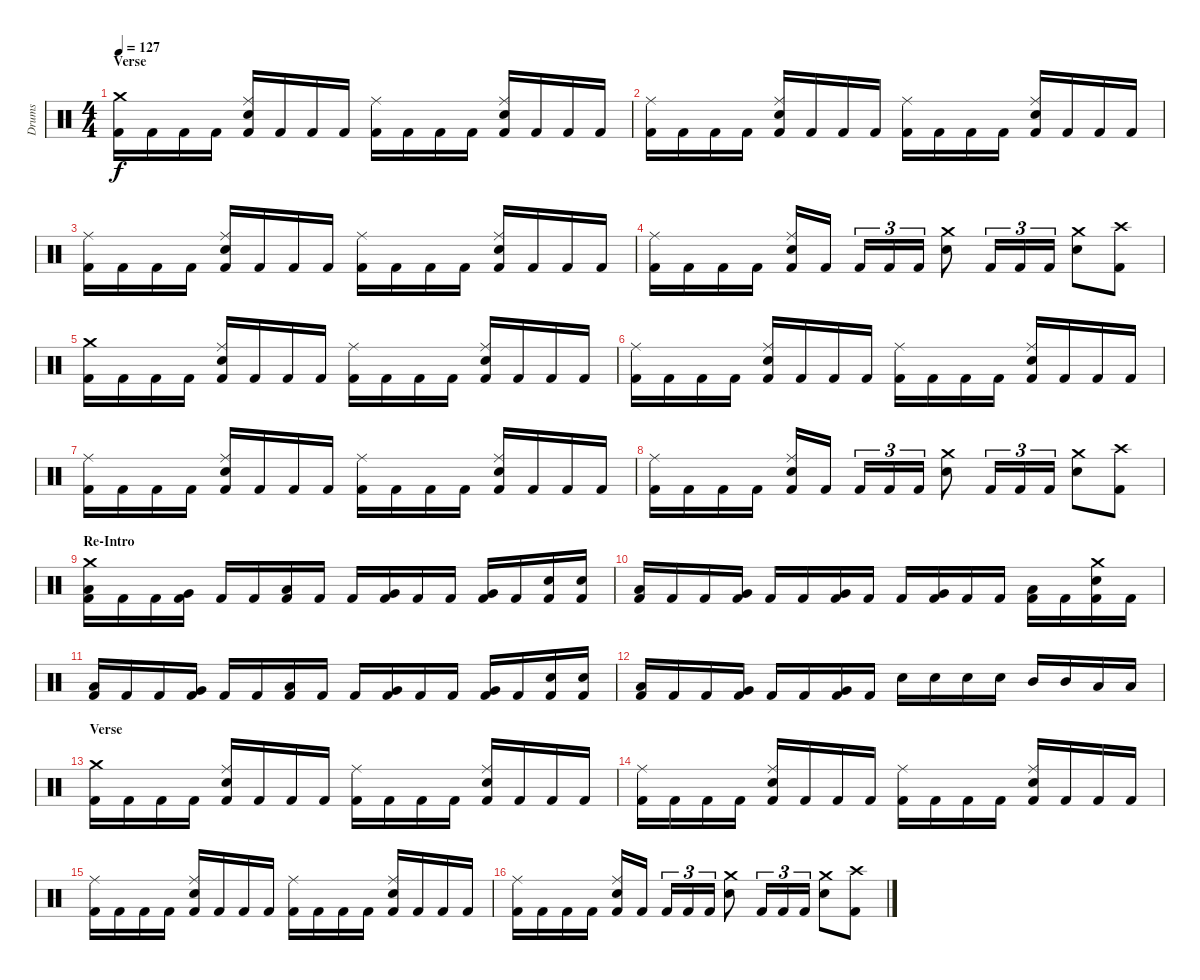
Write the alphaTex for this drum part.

\track ("Drums" "Drums") {instrument percussion}
\staff {score}
\articulation defaults
\ts (4 4)
\section ("" "Verse")
\tempo 127
\clef neutral
\ks c
("Crash medium (hit)" "Kick (hit) 2").16{dy f} "Kick (hit) 2".16 "Kick (hit) 2".16 "Kick (hit) 2".16 ("Ride (middle)" "Electric Snare (hit)" "Kick (hit) 2").16 "Kick (hit) 2".16 "Kick (hit) 2".16 "Kick (hit) 2".16 ("Ride (middle)" "Kick (hit) 2").16 "Kick (hit) 2".16 "Kick (hit) 2".16 "Kick (hit) 2".16 ("Ride (middle)" "Electric Snare (hit)" "Kick (hit) 2").16 "Kick (hit) 2".16 "Kick (hit) 2".16 "Kick (hit) 2".16 |
("Ride (middle)" "Kick (hit) 2").16 "Kick (hit) 2".16 "Kick (hit) 2".16 "Kick (hit) 2".16 ("Ride (middle)" "Electric Snare (hit)" "Kick (hit) 2").16 "Kick (hit) 2".16 "Kick (hit) 2".16 "Kick (hit) 2".16 ("Ride (middle)" "Kick (hit) 2").16 "Kick (hit) 2".16 "Kick (hit) 2".16 "Kick (hit) 2".16 ("Ride (middle)" "Electric Snare (hit)" "Kick (hit) 2").16 "Kick (hit) 2".16 "Kick (hit) 2".16 "Kick (hit) 2".16 |
("Ride (middle)" "Kick (hit) 2").16 "Kick (hit) 2".16 "Kick (hit) 2".16 "Kick (hit) 2".16 ("Ride (middle)" "Electric Snare (hit)" "Kick (hit) 2").16 "Kick (hit) 2".16 "Kick (hit) 2".16 "Kick (hit) 2".16 ("Ride (middle)" "Kick (hit) 2").16 "Kick (hit) 2".16 "Kick (hit) 2".16 "Kick (hit) 2".16 ("Ride (middle)" "Electric Snare (hit)" "Kick (hit) 2").16 "Kick (hit) 2".16 "Kick (hit) 2".16 "Kick (hit) 2".16 |
("Ride (middle)" "Kick (hit) 2").16 "Kick (hit) 2".16 "Kick (hit) 2".16 "Kick (hit) 2".16 ("Ride (middle)" "Electric Snare (hit)" "Kick (hit) 2").16 "Kick (hit) 2".16 "Kick (hit) 2".16{tu (3 2)} "Kick (hit) 2".16{tu (3 2)} "Kick (hit) 2".16{tu (3 2)} ("Crash medium (hit)" "Electric Snare (hit)").8 "Kick (hit) 2".16{tu (3 2)} "Kick (hit) 2".16{tu (3 2)} "Kick (hit) 2".16{tu (3 2)} ("Crash medium (hit)" "Electric Snare (hit)").8 ("Crash high (hit)" "Kick (hit) 2").8 |
("Crash medium (hit)" "Kick (hit) 2").16 "Kick (hit) 2".16 "Kick (hit) 2".16 "Kick (hit) 2".16 ("Ride (middle)" "Electric Snare (hit)" "Kick (hit) 2").16 "Kick (hit) 2".16 "Kick (hit) 2".16 "Kick (hit) 2".16 ("Ride (middle)" "Kick (hit) 2").16 "Kick (hit) 2".16 "Kick (hit) 2".16 "Kick (hit) 2".16 ("Ride (middle)" "Electric Snare (hit)" "Kick (hit) 2").16 "Kick (hit) 2".16 "Kick (hit) 2".16 "Kick (hit) 2".16 |
("Ride (middle)" "Kick (hit) 2").16 "Kick (hit) 2".16 "Kick (hit) 2".16 "Kick (hit) 2".16 ("Ride (middle)" "Electric Snare (hit)" "Kick (hit) 2").16 "Kick (hit) 2".16 "Kick (hit) 2".16 "Kick (hit) 2".16 ("Ride (middle)" "Kick (hit) 2").16 "Kick (hit) 2".16 "Kick (hit) 2".16 "Kick (hit) 2".16 ("Ride (middle)" "Electric Snare (hit)" "Kick (hit) 2").16 "Kick (hit) 2".16 "Kick (hit) 2".16 "Kick (hit) 2".16 |
("Ride (middle)" "Kick (hit) 2").16 "Kick (hit) 2".16 "Kick (hit) 2".16 "Kick (hit) 2".16 ("Ride (middle)" "Electric Snare (hit)" "Kick (hit) 2").16 "Kick (hit) 2".16 "Kick (hit) 2".16 "Kick (hit) 2".16 ("Ride (middle)" "Kick (hit) 2").16 "Kick (hit) 2".16 "Kick (hit) 2".16 "Kick (hit) 2".16 ("Ride (middle)" "Electric Snare (hit)" "Kick (hit) 2").16 "Kick (hit) 2".16 "Kick (hit) 2".16 "Kick (hit) 2".16 |
("Ride (middle)" "Kick (hit) 2").16 "Kick (hit) 2".16 "Kick (hit) 2".16 "Kick (hit) 2".16 ("Ride (middle)" "Electric Snare (hit)" "Kick (hit) 2").16 "Kick (hit) 2".16 "Kick (hit) 2".16{tu (3 2)} "Kick (hit) 2".16{tu (3 2)} "Kick (hit) 2".16{tu (3 2)} ("Crash medium (hit)" "Electric Snare (hit)").8 "Kick (hit) 2".16{tu (3 2)} "Kick (hit) 2".16{tu (3 2)} "Kick (hit) 2".16{tu (3 2)} ("Crash medium (hit)" "Electric Snare (hit)").8 ("Crash high (hit)" "Kick (hit) 2").8 |
\section ("" "Re-Intro")
("Crash medium (hit)" "Low Tom (hit)" "Kick (hit) 2").16 "Kick (hit) 2".16 "Kick (hit) 2".16 ("Very Low Tom (hit)" "Kick (hit) 2").16 "Kick (hit) 2".16 "Kick (hit) 2".16 ("Low Tom (hit)" "Kick (hit) 2").16 "Kick (hit) 2".16 "Kick (hit) 2".16 ("Very Low Tom (hit)" "Kick (hit) 2").16 "Kick (hit) 2".16 "Kick (hit) 2".16 ("Very Low Tom (hit)" "Kick (hit) 2").16 "Kick (hit) 2".16 ("Electric Snare (hit)" "Kick (hit) 2").16 ("Electric Snare (hit)" "Kick (hit) 2").16 |
("Low Tom (hit)" "Kick (hit) 2").16 "Kick (hit) 2".16 "Kick (hit) 2".16 ("Very Low Tom (hit)" "Kick (hit) 2").16 "Kick (hit) 2".16 "Kick (hit) 2".16 ("Very Low Tom (hit)" "Kick (hit) 2").16 "Kick (hit) 2".16 "Kick (hit) 2".16 ("Very Low Tom (hit)" "Kick (hit) 2").16 "Kick (hit) 2".16 "Kick (hit) 2".16 ("Low Tom (hit)" "Kick (hit) 2").16 "Kick (hit) 2".16 ("Crash medium (hit)" "Electric Snare (hit)" "Kick (hit) 2").16 "Kick (hit) 2".16 |
("Low Tom (hit)" "Kick (hit) 2").16 "Kick (hit) 2".16 "Kick (hit) 2".16 ("Very Low Tom (hit)" "Kick (hit) 2").16 "Kick (hit) 2".16 "Kick (hit) 2".16 ("Low Tom (hit)" "Kick (hit) 2").16 "Kick (hit) 2".16 "Kick (hit) 2".16 ("Very Low Tom (hit)" "Kick (hit) 2").16 "Kick (hit) 2".16 "Kick (hit) 2".16 ("Very Low Tom (hit)" "Kick (hit) 2").16 "Kick (hit) 2".16 ("Electric Snare (hit)" "Kick (hit) 2").16 ("Electric Snare (hit)" "Kick (hit) 2").16 |
("Low Tom (hit)" "Kick (hit) 2").16 "Kick (hit) 2".16 "Kick (hit) 2".16 ("Very Low Tom (hit)" "Kick (hit) 2").16 "Kick (hit) 2".16 "Kick (hit) 2".16 ("Very Low Tom (hit)" "Kick (hit) 2").16 "Kick (hit) 2".16 "Electric Snare (hit)".16 "Electric Snare (hit)".16 "Electric Snare (hit)".16 "Electric Snare (hit)".16 "Mid Tom (hit)".16 "Mid Tom (hit)".16 "Low Tom (hit)".16 "Low Tom (hit)".16 |
\section ("" "Verse")
("Crash medium (hit)" "Kick (hit) 2").16 "Kick (hit) 2".16 "Kick (hit) 2".16 "Kick (hit) 2".16 ("Ride (middle)" "Electric Snare (hit)" "Kick (hit) 2").16 "Kick (hit) 2".16 "Kick (hit) 2".16 "Kick (hit) 2".16 ("Ride (middle)" "Kick (hit) 2").16 "Kick (hit) 2".16 "Kick (hit) 2".16 "Kick (hit) 2".16 ("Ride (middle)" "Electric Snare (hit)" "Kick (hit) 2").16 "Kick (hit) 2".16 "Kick (hit) 2".16 "Kick (hit) 2".16 |
("Ride (middle)" "Kick (hit) 2").16 "Kick (hit) 2".16 "Kick (hit) 2".16 "Kick (hit) 2".16 ("Ride (middle)" "Electric Snare (hit)" "Kick (hit) 2").16 "Kick (hit) 2".16 "Kick (hit) 2".16 "Kick (hit) 2".16 ("Ride (middle)" "Kick (hit) 2").16 "Kick (hit) 2".16 "Kick (hit) 2".16 "Kick (hit) 2".16 ("Ride (middle)" "Electric Snare (hit)" "Kick (hit) 2").16 "Kick (hit) 2".16 "Kick (hit) 2".16 "Kick (hit) 2".16 |
("Ride (middle)" "Kick (hit) 2").16 "Kick (hit) 2".16 "Kick (hit) 2".16 "Kick (hit) 2".16 ("Ride (middle)" "Electric Snare (hit)" "Kick (hit) 2").16 "Kick (hit) 2".16 "Kick (hit) 2".16 "Kick (hit) 2".16 ("Ride (middle)" "Kick (hit) 2").16 "Kick (hit) 2".16 "Kick (hit) 2".16 "Kick (hit) 2".16 ("Ride (middle)" "Electric Snare (hit)" "Kick (hit) 2").16 "Kick (hit) 2".16 "Kick (hit) 2".16 "Kick (hit) 2".16 |
("Ride (middle)" "Kick (hit) 2").16 "Kick (hit) 2".16 "Kick (hit) 2".16 "Kick (hit) 2".16 ("Ride (middle)" "Electric Snare (hit)" "Kick (hit) 2").16 "Kick (hit) 2".16 "Kick (hit) 2".16{tu (3 2)} "Kick (hit) 2".16{tu (3 2)} "Kick (hit) 2".16{tu (3 2)} ("Crash medium (hit)" "Electric Snare (hit)").8 "Kick (hit) 2".16{tu (3 2)} "Kick (hit) 2".16{tu (3 2)} "Kick (hit) 2".16{tu (3 2)} ("Crash medium (hit)" "Electric Snare (hit)").8 ("Crash high (hit)" "Kick (hit) 2").8
